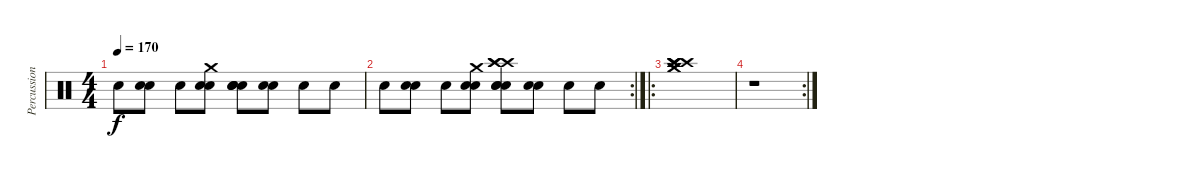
\track ("Percussions" "Percussion") {instrument percussion}
\staff {score}
\articulation defaults
\ts (4 4)
\tempo 170
\clef neutral
\ks c "Snare (hit) 2".8{dy f}
("Electric Snare (hit)" "Snare (hit) 2").8 "Snare (hit) 2".8 ("Electric Snare (hit)" "Snare (hit) 2" "Crash medium (hit)").8 ("Electric Snare (hit)" "Electric Snare (hit)" "Electric Snare (hit)" "Snare (hit) 2").8 ("Electric Snare (hit)" "Snare (hit) 2").8 "Snare (hit) 2".8 "Snare (hit) 2".8 |
\rc 2 "Snare (hit) 2".8
("Electric Snare (hit)" "Snare (hit) 2").8 "Snare (hit) 2".8 ("Electric Snare (hit)" "Snare (hit) 2" "Crash medium (hit)").8 ("Electric Snare (hit)" "Electric Snare (hit)" "Crash high (hit)" "Snare (hit) 2" "Crash high (hit)" "Crash high (hit)").8 ("Electric Snare (hit)" "Snare (hit) 2").8 "Snare (hit) 2".8 "Snare (hit) 2".8 |
\ro
("Crash high (hit)" "Crash high (hit)" "Crash medium (hit)" "Crash high (hit)" "Crash medium (hit)" "Crash high (hit)").1 |
\rc 2
r.1
